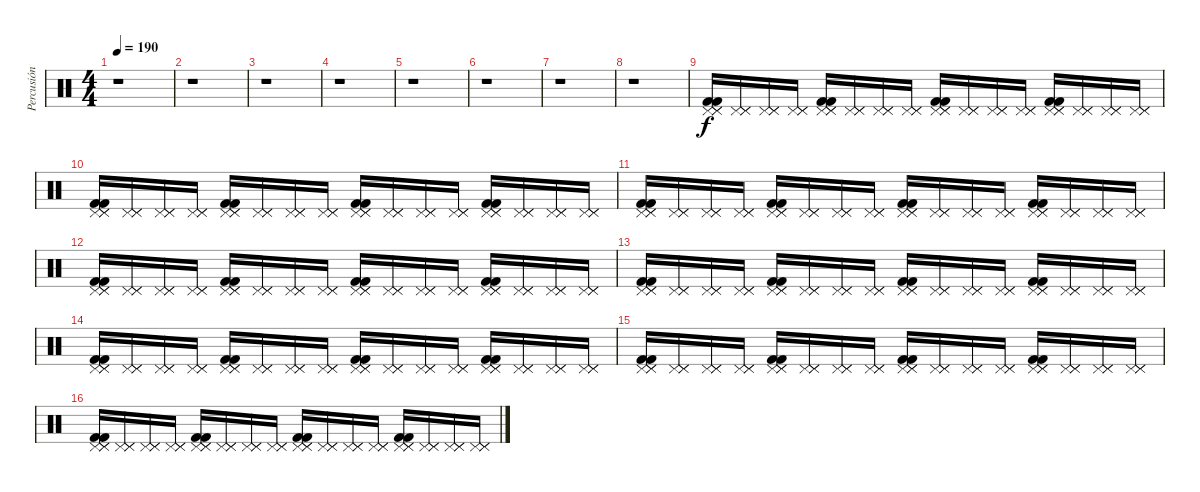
\track ("Percusión" "Percusión") {instrument percussion}
\staff {score}
\articulation defaults
\ts (4 4)
\tempo 190
\clef neutral
\ks c
r.1{dy f volume 16} |
r.1 |
r.1 |
r.1 |
r.1 |
r.1 |
r.1 |
r.1 |
("Pedal Hi-Hat (hit)" "Pedal Hi-Hat (hit)" "Pedal Hi-Hat (hit)" "Kick (hit) 2" "Kick (hit) 2").16 ("Pedal Hi-Hat (hit)" "Pedal Hi-Hat (hit)" "Pedal Hi-Hat (hit)").16 ("Pedal Hi-Hat (hit)" "Pedal Hi-Hat (hit)" "Pedal Hi-Hat (hit)").16 ("Pedal Hi-Hat (hit)" "Pedal Hi-Hat (hit)" "Pedal Hi-Hat (hit)").16 ("Pedal Hi-Hat (hit)" "Pedal Hi-Hat (hit)" "Pedal Hi-Hat (hit)" "Kick (hit) 2" "Kick (hit) 2").16 ("Pedal Hi-Hat (hit)" "Pedal Hi-Hat (hit)" "Pedal Hi-Hat (hit)").16 ("Pedal Hi-Hat (hit)" "Pedal Hi-Hat (hit)" "Pedal Hi-Hat (hit)").16 ("Pedal Hi-Hat (hit)" "Pedal Hi-Hat (hit)" "Pedal Hi-Hat (hit)").16 ("Pedal Hi-Hat (hit)" "Pedal Hi-Hat (hit)" "Pedal Hi-Hat (hit)" "Kick (hit) 2" "Kick (hit) 2").16 ("Pedal Hi-Hat (hit)" "Pedal Hi-Hat (hit)" "Pedal Hi-Hat (hit)").16 ("Pedal Hi-Hat (hit)" "Pedal Hi-Hat (hit)" "Pedal Hi-Hat (hit)").16 ("Pedal Hi-Hat (hit)" "Pedal Hi-Hat (hit)" "Pedal Hi-Hat (hit)").16 ("Pedal Hi-Hat (hit)" "Pedal Hi-Hat (hit)" "Pedal Hi-Hat (hit)" "Kick (hit) 2" "Kick (hit) 2").16 ("Pedal Hi-Hat (hit)" "Pedal Hi-Hat (hit)" "Pedal Hi-Hat (hit)").16 ("Pedal Hi-Hat (hit)" "Pedal Hi-Hat (hit)" "Pedal Hi-Hat (hit)").16 ("Pedal Hi-Hat (hit)" "Pedal Hi-Hat (hit)" "Pedal Hi-Hat (hit)").16 |
("Pedal Hi-Hat (hit)" "Pedal Hi-Hat (hit)" "Pedal Hi-Hat (hit)" "Kick (hit) 2" "Kick (hit) 2").16 ("Pedal Hi-Hat (hit)" "Pedal Hi-Hat (hit)" "Pedal Hi-Hat (hit)").16 ("Pedal Hi-Hat (hit)" "Pedal Hi-Hat (hit)" "Pedal Hi-Hat (hit)").16 ("Pedal Hi-Hat (hit)" "Pedal Hi-Hat (hit)" "Pedal Hi-Hat (hit)").16 ("Pedal Hi-Hat (hit)" "Pedal Hi-Hat (hit)" "Pedal Hi-Hat (hit)" "Kick (hit) 2" "Kick (hit) 2").16 ("Pedal Hi-Hat (hit)" "Pedal Hi-Hat (hit)" "Pedal Hi-Hat (hit)").16 ("Pedal Hi-Hat (hit)" "Pedal Hi-Hat (hit)" "Pedal Hi-Hat (hit)").16 ("Pedal Hi-Hat (hit)" "Pedal Hi-Hat (hit)" "Pedal Hi-Hat (hit)").16 ("Pedal Hi-Hat (hit)" "Pedal Hi-Hat (hit)" "Pedal Hi-Hat (hit)" "Kick (hit) 2" "Kick (hit) 2").16 ("Pedal Hi-Hat (hit)" "Pedal Hi-Hat (hit)" "Pedal Hi-Hat (hit)").16 ("Pedal Hi-Hat (hit)" "Pedal Hi-Hat (hit)" "Pedal Hi-Hat (hit)").16 ("Pedal Hi-Hat (hit)" "Pedal Hi-Hat (hit)" "Pedal Hi-Hat (hit)").16 ("Pedal Hi-Hat (hit)" "Pedal Hi-Hat (hit)" "Pedal Hi-Hat (hit)" "Kick (hit) 2" "Kick (hit) 2").16 ("Pedal Hi-Hat (hit)" "Pedal Hi-Hat (hit)" "Pedal Hi-Hat (hit)").16 ("Pedal Hi-Hat (hit)" "Pedal Hi-Hat (hit)" "Pedal Hi-Hat (hit)").16 ("Pedal Hi-Hat (hit)" "Pedal Hi-Hat (hit)" "Pedal Hi-Hat (hit)").16 |
("Pedal Hi-Hat (hit)" "Pedal Hi-Hat (hit)" "Pedal Hi-Hat (hit)" "Kick (hit) 2" "Kick (hit) 2").16 ("Pedal Hi-Hat (hit)" "Pedal Hi-Hat (hit)" "Pedal Hi-Hat (hit)").16 ("Pedal Hi-Hat (hit)" "Pedal Hi-Hat (hit)" "Pedal Hi-Hat (hit)").16 ("Pedal Hi-Hat (hit)" "Pedal Hi-Hat (hit)" "Pedal Hi-Hat (hit)").16 ("Pedal Hi-Hat (hit)" "Pedal Hi-Hat (hit)" "Pedal Hi-Hat (hit)" "Kick (hit) 2" "Kick (hit) 2").16 ("Pedal Hi-Hat (hit)" "Pedal Hi-Hat (hit)" "Pedal Hi-Hat (hit)").16 ("Pedal Hi-Hat (hit)" "Pedal Hi-Hat (hit)" "Pedal Hi-Hat (hit)").16 ("Pedal Hi-Hat (hit)" "Pedal Hi-Hat (hit)" "Pedal Hi-Hat (hit)").16 ("Pedal Hi-Hat (hit)" "Pedal Hi-Hat (hit)" "Pedal Hi-Hat (hit)" "Kick (hit) 2" "Kick (hit) 2").16 ("Pedal Hi-Hat (hit)" "Pedal Hi-Hat (hit)" "Pedal Hi-Hat (hit)").16 ("Pedal Hi-Hat (hit)" "Pedal Hi-Hat (hit)" "Pedal Hi-Hat (hit)").16 ("Pedal Hi-Hat (hit)" "Pedal Hi-Hat (hit)" "Pedal Hi-Hat (hit)").16 ("Pedal Hi-Hat (hit)" "Pedal Hi-Hat (hit)" "Pedal Hi-Hat (hit)" "Kick (hit) 2" "Kick (hit) 2").16 ("Pedal Hi-Hat (hit)" "Pedal Hi-Hat (hit)" "Pedal Hi-Hat (hit)").16 ("Pedal Hi-Hat (hit)" "Pedal Hi-Hat (hit)" "Pedal Hi-Hat (hit)").16 ("Pedal Hi-Hat (hit)" "Pedal Hi-Hat (hit)" "Pedal Hi-Hat (hit)").16 |
("Pedal Hi-Hat (hit)" "Pedal Hi-Hat (hit)" "Pedal Hi-Hat (hit)" "Kick (hit) 2" "Kick (hit) 2").16 ("Pedal Hi-Hat (hit)" "Pedal Hi-Hat (hit)" "Pedal Hi-Hat (hit)").16 ("Pedal Hi-Hat (hit)" "Pedal Hi-Hat (hit)" "Pedal Hi-Hat (hit)").16 ("Pedal Hi-Hat (hit)" "Pedal Hi-Hat (hit)" "Pedal Hi-Hat (hit)").16 ("Pedal Hi-Hat (hit)" "Pedal Hi-Hat (hit)" "Pedal Hi-Hat (hit)" "Kick (hit) 2" "Kick (hit) 2").16 ("Pedal Hi-Hat (hit)" "Pedal Hi-Hat (hit)" "Pedal Hi-Hat (hit)").16 ("Pedal Hi-Hat (hit)" "Pedal Hi-Hat (hit)" "Pedal Hi-Hat (hit)").16 ("Pedal Hi-Hat (hit)" "Pedal Hi-Hat (hit)" "Pedal Hi-Hat (hit)").16 ("Pedal Hi-Hat (hit)" "Pedal Hi-Hat (hit)" "Pedal Hi-Hat (hit)" "Kick (hit) 2" "Kick (hit) 2").16 ("Pedal Hi-Hat (hit)" "Pedal Hi-Hat (hit)" "Pedal Hi-Hat (hit)").16 ("Pedal Hi-Hat (hit)" "Pedal Hi-Hat (hit)" "Pedal Hi-Hat (hit)").16 ("Pedal Hi-Hat (hit)" "Pedal Hi-Hat (hit)" "Pedal Hi-Hat (hit)").16 ("Pedal Hi-Hat (hit)" "Pedal Hi-Hat (hit)" "Pedal Hi-Hat (hit)" "Kick (hit) 2" "Kick (hit) 2").16 ("Pedal Hi-Hat (hit)" "Pedal Hi-Hat (hit)" "Pedal Hi-Hat (hit)").16 ("Pedal Hi-Hat (hit)" "Pedal Hi-Hat (hit)" "Pedal Hi-Hat (hit)").16 ("Pedal Hi-Hat (hit)" "Pedal Hi-Hat (hit)" "Pedal Hi-Hat (hit)").16 |
("Pedal Hi-Hat (hit)" "Pedal Hi-Hat (hit)" "Pedal Hi-Hat (hit)" "Kick (hit) 2" "Kick (hit) 2").16 ("Pedal Hi-Hat (hit)" "Pedal Hi-Hat (hit)" "Pedal Hi-Hat (hit)").16 ("Pedal Hi-Hat (hit)" "Pedal Hi-Hat (hit)" "Pedal Hi-Hat (hit)").16 ("Pedal Hi-Hat (hit)" "Pedal Hi-Hat (hit)" "Pedal Hi-Hat (hit)").16 ("Pedal Hi-Hat (hit)" "Pedal Hi-Hat (hit)" "Pedal Hi-Hat (hit)" "Kick (hit) 2" "Kick (hit) 2").16 ("Pedal Hi-Hat (hit)" "Pedal Hi-Hat (hit)" "Pedal Hi-Hat (hit)").16 ("Pedal Hi-Hat (hit)" "Pedal Hi-Hat (hit)" "Pedal Hi-Hat (hit)").16 ("Pedal Hi-Hat (hit)" "Pedal Hi-Hat (hit)" "Pedal Hi-Hat (hit)").16 ("Pedal Hi-Hat (hit)" "Pedal Hi-Hat (hit)" "Pedal Hi-Hat (hit)" "Kick (hit) 2" "Kick (hit) 2").16 ("Pedal Hi-Hat (hit)" "Pedal Hi-Hat (hit)" "Pedal Hi-Hat (hit)").16 ("Pedal Hi-Hat (hit)" "Pedal Hi-Hat (hit)" "Pedal Hi-Hat (hit)").16 ("Pedal Hi-Hat (hit)" "Pedal Hi-Hat (hit)" "Pedal Hi-Hat (hit)").16 ("Pedal Hi-Hat (hit)" "Pedal Hi-Hat (hit)" "Pedal Hi-Hat (hit)" "Kick (hit) 2" "Kick (hit) 2").16 ("Pedal Hi-Hat (hit)" "Pedal Hi-Hat (hit)" "Pedal Hi-Hat (hit)").16 ("Pedal Hi-Hat (hit)" "Pedal Hi-Hat (hit)" "Pedal Hi-Hat (hit)").16 ("Pedal Hi-Hat (hit)" "Pedal Hi-Hat (hit)" "Pedal Hi-Hat (hit)").16 |
("Pedal Hi-Hat (hit)" "Pedal Hi-Hat (hit)" "Pedal Hi-Hat (hit)" "Kick (hit) 2" "Kick (hit) 2").16 ("Pedal Hi-Hat (hit)" "Pedal Hi-Hat (hit)" "Pedal Hi-Hat (hit)").16 ("Pedal Hi-Hat (hit)" "Pedal Hi-Hat (hit)" "Pedal Hi-Hat (hit)").16 ("Pedal Hi-Hat (hit)" "Pedal Hi-Hat (hit)" "Pedal Hi-Hat (hit)").16 ("Pedal Hi-Hat (hit)" "Pedal Hi-Hat (hit)" "Pedal Hi-Hat (hit)" "Kick (hit) 2" "Kick (hit) 2").16 ("Pedal Hi-Hat (hit)" "Pedal Hi-Hat (hit)" "Pedal Hi-Hat (hit)").16 ("Pedal Hi-Hat (hit)" "Pedal Hi-Hat (hit)" "Pedal Hi-Hat (hit)").16 ("Pedal Hi-Hat (hit)" "Pedal Hi-Hat (hit)" "Pedal Hi-Hat (hit)").16 ("Pedal Hi-Hat (hit)" "Pedal Hi-Hat (hit)" "Pedal Hi-Hat (hit)" "Kick (hit) 2" "Kick (hit) 2").16 ("Pedal Hi-Hat (hit)" "Pedal Hi-Hat (hit)" "Pedal Hi-Hat (hit)").16 ("Pedal Hi-Hat (hit)" "Pedal Hi-Hat (hit)" "Pedal Hi-Hat (hit)").16 ("Pedal Hi-Hat (hit)" "Pedal Hi-Hat (hit)" "Pedal Hi-Hat (hit)").16 ("Pedal Hi-Hat (hit)" "Pedal Hi-Hat (hit)" "Pedal Hi-Hat (hit)" "Kick (hit) 2" "Kick (hit) 2").16 ("Pedal Hi-Hat (hit)" "Pedal Hi-Hat (hit)" "Pedal Hi-Hat (hit)").16 ("Pedal Hi-Hat (hit)" "Pedal Hi-Hat (hit)" "Pedal Hi-Hat (hit)").16 ("Pedal Hi-Hat (hit)" "Pedal Hi-Hat (hit)" "Pedal Hi-Hat (hit)").16 |
("Pedal Hi-Hat (hit)" "Pedal Hi-Hat (hit)" "Pedal Hi-Hat (hit)" "Kick (hit) 2" "Kick (hit) 2").16 ("Pedal Hi-Hat (hit)" "Pedal Hi-Hat (hit)" "Pedal Hi-Hat (hit)").16 ("Pedal Hi-Hat (hit)" "Pedal Hi-Hat (hit)" "Pedal Hi-Hat (hit)").16 ("Pedal Hi-Hat (hit)" "Pedal Hi-Hat (hit)" "Pedal Hi-Hat (hit)").16 ("Pedal Hi-Hat (hit)" "Pedal Hi-Hat (hit)" "Pedal Hi-Hat (hit)" "Kick (hit) 2" "Kick (hit) 2").16 ("Pedal Hi-Hat (hit)" "Pedal Hi-Hat (hit)" "Pedal Hi-Hat (hit)").16 ("Pedal Hi-Hat (hit)" "Pedal Hi-Hat (hit)" "Pedal Hi-Hat (hit)").16 ("Pedal Hi-Hat (hit)" "Pedal Hi-Hat (hit)" "Pedal Hi-Hat (hit)").16 ("Pedal Hi-Hat (hit)" "Pedal Hi-Hat (hit)" "Pedal Hi-Hat (hit)" "Kick (hit) 2" "Kick (hit) 2").16 ("Pedal Hi-Hat (hit)" "Pedal Hi-Hat (hit)" "Pedal Hi-Hat (hit)").16 ("Pedal Hi-Hat (hit)" "Pedal Hi-Hat (hit)" "Pedal Hi-Hat (hit)").16 ("Pedal Hi-Hat (hit)" "Pedal Hi-Hat (hit)" "Pedal Hi-Hat (hit)").16 ("Pedal Hi-Hat (hit)" "Pedal Hi-Hat (hit)" "Pedal Hi-Hat (hit)" "Kick (hit) 2" "Kick (hit) 2").16 ("Pedal Hi-Hat (hit)" "Pedal Hi-Hat (hit)" "Pedal Hi-Hat (hit)").16 ("Pedal Hi-Hat (hit)" "Pedal Hi-Hat (hit)" "Pedal Hi-Hat (hit)").16 ("Pedal Hi-Hat (hit)" "Pedal Hi-Hat (hit)" "Pedal Hi-Hat (hit)").16 |
("Pedal Hi-Hat (hit)" "Pedal Hi-Hat (hit)" "Pedal Hi-Hat (hit)" "Kick (hit) 2" "Kick (hit) 2").16 ("Pedal Hi-Hat (hit)" "Pedal Hi-Hat (hit)" "Pedal Hi-Hat (hit)").16 ("Pedal Hi-Hat (hit)" "Pedal Hi-Hat (hit)" "Pedal Hi-Hat (hit)").16 ("Pedal Hi-Hat (hit)" "Pedal Hi-Hat (hit)" "Pedal Hi-Hat (hit)").16 ("Pedal Hi-Hat (hit)" "Pedal Hi-Hat (hit)" "Pedal Hi-Hat (hit)" "Kick (hit) 2" "Kick (hit) 2").16 ("Pedal Hi-Hat (hit)" "Pedal Hi-Hat (hit)" "Pedal Hi-Hat (hit)").16 ("Pedal Hi-Hat (hit)" "Pedal Hi-Hat (hit)" "Pedal Hi-Hat (hit)").16 ("Pedal Hi-Hat (hit)" "Pedal Hi-Hat (hit)" "Pedal Hi-Hat (hit)").16 ("Pedal Hi-Hat (hit)" "Pedal Hi-Hat (hit)" "Pedal Hi-Hat (hit)" "Kick (hit) 2" "Kick (hit) 2").16 ("Pedal Hi-Hat (hit)" "Pedal Hi-Hat (hit)" "Pedal Hi-Hat (hit)").16 ("Pedal Hi-Hat (hit)" "Pedal Hi-Hat (hit)" "Pedal Hi-Hat (hit)").16 ("Pedal Hi-Hat (hit)" "Pedal Hi-Hat (hit)" "Pedal Hi-Hat (hit)").16 ("Pedal Hi-Hat (hit)" "Pedal Hi-Hat (hit)" "Pedal Hi-Hat (hit)" "Kick (hit) 2" "Kick (hit) 2").16 ("Pedal Hi-Hat (hit)" "Pedal Hi-Hat (hit)" "Pedal Hi-Hat (hit)").16 ("Pedal Hi-Hat (hit)" "Pedal Hi-Hat (hit)" "Pedal Hi-Hat (hit)").16 ("Pedal Hi-Hat (hit)" "Pedal Hi-Hat (hit)" "Pedal Hi-Hat (hit)").16
